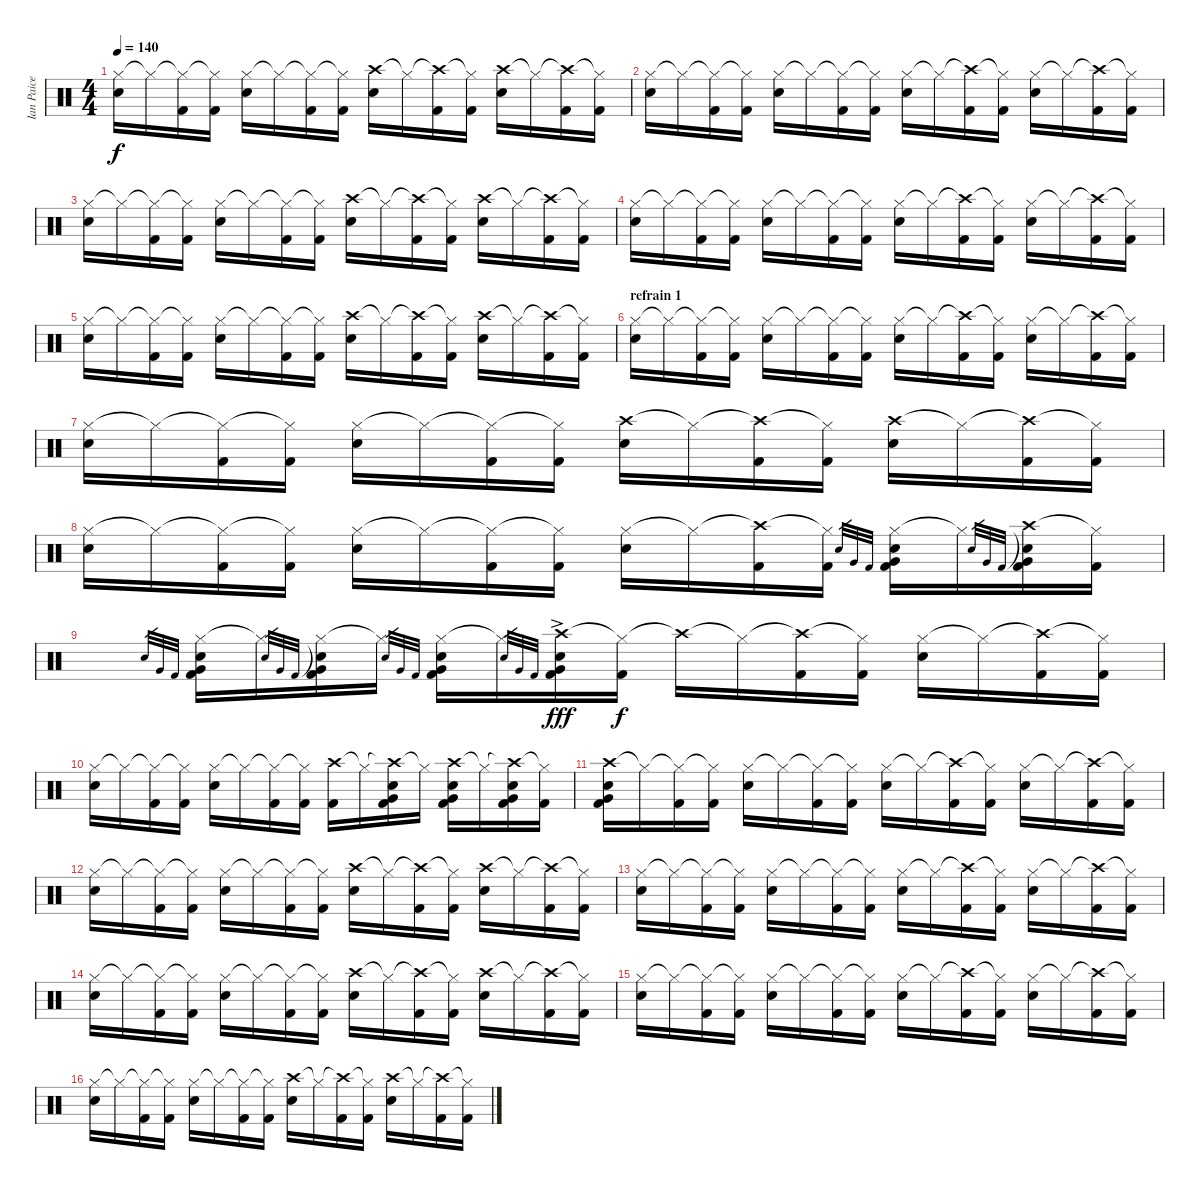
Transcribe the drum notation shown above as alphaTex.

\track ("Ian Paice" "Ian Paice") {instrument percussion}
\staff {score}
\articulation defaults
\ts (4 4)
\tempo 140
\clef neutral
\ks c
("Hi-Hat (closed)" "Snare (hit) 2").16{dy f} "Hi-Hat (closed)"{t}.16 ("Hi-Hat (closed)"{t} "Kick (hit) 2").16 ("Hi-Hat (closed)"{t} "Kick (hit) 2").16 ("Hi-Hat (closed)" "Snare (hit) 2").16 "Hi-Hat (closed)"{t}.16 ("Hi-Hat (closed)"{t} "Kick (hit) 2").16 ("Hi-Hat (closed)"{t} "Kick (hit) 2").16 ("Crash high (hit)" "Snare (hit) 2").16 "Hi-Hat (closed)"{t}.16 ("Crash high (hit)"{t} "Kick (hit) 2").16 ("Hi-Hat (closed)"{t} "Kick (hit) 2").16 ("Crash high (hit)" "Snare (hit) 2").16 "Hi-Hat (closed)"{t}.16 ("Crash high (hit)"{t} "Kick (hit) 2").16 ("Hi-Hat (closed)"{t} "Kick (hit) 2").16 |
("Hi-Hat (closed)" "Snare (hit) 2").16 "Hi-Hat (closed)"{t}.16 ("Hi-Hat (closed)"{t} "Kick (hit) 2").16 ("Hi-Hat (closed)"{t} "Kick (hit) 2").16 ("Hi-Hat (closed)" "Snare (hit) 2").16 "Hi-Hat (closed)"{t}.16 ("Hi-Hat (closed)"{t} "Kick (hit) 2").16 ("Hi-Hat (closed)"{t} "Kick (hit) 2").16 ("Hi-Hat (closed)" "Snare (hit) 2").16 "Hi-Hat (closed)"{t}.16 ("Crash high (hit)"{t} "Kick (hit) 2").16 ("Hi-Hat (closed)"{t} "Kick (hit) 2").16 ("Hi-Hat (closed)" "Snare (hit) 2").16 "Hi-Hat (closed)"{t}.16 ("Crash high (hit)"{t} "Kick (hit) 2").16 ("Hi-Hat (closed)"{t} "Kick (hit) 2").16 |
("Hi-Hat (closed)" "Snare (hit) 2").16 "Hi-Hat (closed)"{t}.16 ("Hi-Hat (closed)"{t} "Kick (hit) 2").16 ("Hi-Hat (closed)"{t} "Kick (hit) 2").16 ("Hi-Hat (closed)" "Snare (hit) 2").16 "Hi-Hat (closed)"{t}.16 ("Hi-Hat (closed)"{t} "Kick (hit) 2").16 ("Hi-Hat (closed)"{t} "Kick (hit) 2").16 ("Crash high (hit)" "Snare (hit) 2").16 "Hi-Hat (closed)"{t}.16 ("Crash high (hit)"{t} "Kick (hit) 2").16 ("Hi-Hat (closed)"{t} "Kick (hit) 2").16 ("Crash high (hit)" "Snare (hit) 2").16 "Hi-Hat (closed)"{t}.16 ("Crash high (hit)"{t} "Kick (hit) 2").16 ("Hi-Hat (closed)"{t} "Kick (hit) 2").16 |
("Hi-Hat (closed)" "Snare (hit) 2").16 "Hi-Hat (closed)"{t}.16 ("Hi-Hat (closed)"{t} "Kick (hit) 2").16 ("Hi-Hat (closed)"{t} "Kick (hit) 2").16 ("Hi-Hat (closed)" "Snare (hit) 2").16 "Hi-Hat (closed)"{t}.16 ("Hi-Hat (closed)"{t} "Kick (hit) 2").16 ("Hi-Hat (closed)"{t} "Kick (hit) 2").16 ("Hi-Hat (closed)" "Snare (hit) 2").16 "Hi-Hat (closed)"{t}.16 ("Crash high (hit)"{t} "Kick (hit) 2").16 ("Hi-Hat (closed)"{t} "Kick (hit) 2").16 ("Hi-Hat (closed)" "Snare (hit) 2").16 "Hi-Hat (closed)"{t}.16 ("Crash high (hit)"{t} "Kick (hit) 2").16 ("Hi-Hat (closed)"{t} "Kick (hit) 2").16 |
("Hi-Hat (closed)" "Snare (hit) 2").16 "Hi-Hat (closed)"{t}.16 ("Hi-Hat (closed)"{t} "Kick (hit) 2").16 ("Hi-Hat (closed)"{t} "Kick (hit) 2").16 ("Hi-Hat (closed)" "Snare (hit) 2").16 "Hi-Hat (closed)"{t}.16 ("Hi-Hat (closed)"{t} "Kick (hit) 2").16 ("Hi-Hat (closed)"{t} "Kick (hit) 2").16 ("Crash high (hit)" "Snare (hit) 2").16 "Hi-Hat (closed)"{t}.16 ("Crash high (hit)"{t} "Kick (hit) 2").16 ("Hi-Hat (closed)"{t} "Kick (hit) 2").16 ("Crash high (hit)" "Snare (hit) 2").16 "Hi-Hat (closed)"{t}.16 ("Crash high (hit)"{t} "Kick (hit) 2").16 ("Hi-Hat (closed)"{t} "Kick (hit) 2").16 |
\section ("" "refrain 1")
("Hi-Hat (closed)" "Snare (hit) 2").16 "Hi-Hat (closed)"{t}.16 ("Hi-Hat (closed)"{t} "Kick (hit) 2").16 ("Hi-Hat (closed)"{t} "Kick (hit) 2").16 ("Hi-Hat (closed)" "Snare (hit) 2").16 "Hi-Hat (closed)"{t}.16 ("Hi-Hat (closed)"{t} "Kick (hit) 2").16 ("Hi-Hat (closed)"{t} "Kick (hit) 2").16 ("Hi-Hat (closed)" "Snare (hit) 2").16 "Hi-Hat (closed)"{t}.16 ("Crash high (hit)"{t} "Kick (hit) 2").16 ("Hi-Hat (closed)"{t} "Kick (hit) 2").16 ("Hi-Hat (closed)" "Snare (hit) 2").16 "Hi-Hat (closed)"{t}.16 ("Crash high (hit)"{t} "Kick (hit) 2").16 ("Hi-Hat (closed)"{t} "Kick (hit) 2").16 |
("Hi-Hat (closed)" "Snare (hit) 2").16 "Hi-Hat (closed)"{t}.16 ("Hi-Hat (closed)"{t} "Kick (hit) 2").16 ("Hi-Hat (closed)"{t} "Kick (hit) 2").16 ("Hi-Hat (closed)" "Snare (hit) 2").16 "Hi-Hat (closed)"{t}.16 ("Hi-Hat (closed)"{t} "Kick (hit) 2").16 ("Hi-Hat (closed)"{t} "Kick (hit) 2").16 ("Crash high (hit)" "Snare (hit) 2").16 "Hi-Hat (closed)"{t}.16 ("Crash high (hit)"{t} "Kick (hit) 2").16 ("Hi-Hat (closed)"{t} "Kick (hit) 2").16 ("Crash high (hit)" "Snare (hit) 2").16 "Hi-Hat (closed)"{t}.16 ("Crash high (hit)"{t} "Kick (hit) 2").16 ("Hi-Hat (closed)"{t} "Kick (hit) 2").16 |
("Hi-Hat (closed)" "Snare (hit) 2").16 "Hi-Hat (closed)"{t}.16 ("Hi-Hat (closed)"{t} "Kick (hit) 2").16 ("Hi-Hat (closed)"{t} "Kick (hit) 2").16 ("Hi-Hat (closed)" "Snare (hit) 2").16 "Hi-Hat (closed)"{t}.16 ("Hi-Hat (closed)"{t} "Kick (hit) 2").16 ("Hi-Hat (closed)"{t} "Kick (hit) 2").16 ("Hi-Hat (closed)" "Snare (hit) 2").16 "Hi-Hat (closed)"{t}.16 ("Crash high (hit)"{t} "Kick (hit) 2").16 ("Hi-Hat (closed)"{t} "Kick (hit) 2").16 "Snare (hit) 2".32{gr} "Very Low Tom (hit)".32{gr} "Kick (hit) 2".32{gr} ("Hi-Hat (closed)" "Snare (hit) 2" "Very Low Tom (hit)" "Kick (hit) 2").16 "Hi-Hat (closed)"{t}.16 "Snare (hit) 2".32{gr} "Very Low Tom (hit)".32{gr} "Kick (hit) 2".32{gr} ("Crash high (hit)"{t} "Snare (hit) 2" "Very Low Tom (hit)" "Kick (hit) 2").16 ("Hi-Hat (closed)"{t} "Kick (hit) 2").16 |
"Snare (hit) 2".32{gr} "Very Low Tom (hit)".32{gr} "Kick (hit) 2".32{gr} ("Hi-Hat (closed)" "Snare (hit) 2" "Very Low Tom (hit)" "Kick (hit) 2").16 "Hi-Hat (closed)"{t}.16 "Snare (hit) 2".32{gr} "Very Low Tom (hit)".32{gr} "Kick (hit) 2".32{gr} ("Hi-Hat (closed)"{t} "Snare (hit) 2" "Very Low Tom (hit)" "Kick (hit) 2").16 "Hi-Hat (closed)"{t}.16 "Snare (hit) 2".32{gr} "Very Low Tom (hit)".32{gr} "Kick (hit) 2".32{gr} ("Hi-Hat (closed)" "Snare (hit) 2" "Very Low Tom (hit)" "Kick (hit) 2").16 "Hi-Hat (closed)"{t}.16 "Snare (hit) 2".32{gr} "Very Low Tom (hit)".32{gr} "Kick (hit) 2".32{gr} ("Crash high (hit)"{ac} "Snare (hit) 2" "Very Low Tom (hit)" "Kick (hit) 2").16{dy fff} ("Hi-Hat (closed)"{t} "Kick (hit) 2").16{dy f} "Crash high (hit)"{t}.16 "Hi-Hat (closed)"{t}.16 ("Crash high (hit)"{t} "Kick (hit) 2").16 ("Hi-Hat (closed)"{t} "Kick (hit) 2").16 ("Hi-Hat (closed)" "Snare (hit) 2").16 "Hi-Hat (closed)"{t}.16 ("Crash high (hit)"{t} "Kick (hit) 2").16 ("Hi-Hat (closed)"{t} "Kick (hit) 2").16 |
("Hi-Hat (closed)" "Snare (hit) 2").16 "Hi-Hat (closed)"{t}.16 ("Hi-Hat (closed)"{t} "Kick (hit) 2").16 ("Hi-Hat (closed)"{t} "Kick (hit) 2").16 ("Hi-Hat (closed)" "Snare (hit) 2").16 "Hi-Hat (closed)"{t}.16 ("Hi-Hat (closed)"{t} "Kick (hit) 2").16 ("Hi-Hat (closed)"{t} "Kick (hit) 2").16 ("Crash high (hit)" "Kick (hit) 2").16 "Hi-Hat (closed)"{t}.16 ("Crash high (hit)"{t} "Snare (hit) 2" "Very Low Tom (hit)" "Kick (hit) 2").16 "Hi-Hat (closed)"{t}.16 ("Crash high (hit)" "Snare (hit) 2" "Very Low Tom (hit)" "Kick (hit) 2").16 "Hi-Hat (closed)"{t}.16 ("Crash high (hit)"{t} "Snare (hit) 2" "Very Low Tom (hit)" "Kick (hit) 2").16 ("Hi-Hat (closed)"{t} "Kick (hit) 2").16 |
("Crash high (hit)" "Snare (hit) 2" "Very Low Tom (hit)" "Kick (hit) 2").16 "Hi-Hat (closed)"{t}.16 ("Hi-Hat (closed)"{t} "Kick (hit) 2").16 ("Hi-Hat (closed)"{t} "Kick (hit) 2").16 ("Hi-Hat (closed)" "Snare (hit) 2").16 "Hi-Hat (closed)"{t}.16 ("Hi-Hat (closed)"{t} "Kick (hit) 2").16 ("Hi-Hat (closed)"{t} "Kick (hit) 2").16 ("Hi-Hat (closed)" "Snare (hit) 2").16 "Hi-Hat (closed)"{t}.16 ("Crash high (hit)"{t} "Kick (hit) 2").16 ("Hi-Hat (closed)"{t} "Kick (hit) 2").16 ("Hi-Hat (closed)" "Snare (hit) 2").16 "Hi-Hat (closed)"{t}.16 ("Crash high (hit)"{t} "Kick (hit) 2").16 ("Hi-Hat (closed)"{t} "Kick (hit) 2").16 |
("Hi-Hat (closed)" "Snare (hit) 2").16 "Hi-Hat (closed)"{t}.16 ("Hi-Hat (closed)"{t} "Kick (hit) 2").16 ("Hi-Hat (closed)"{t} "Kick (hit) 2").16 ("Hi-Hat (closed)" "Snare (hit) 2").16 "Hi-Hat (closed)"{t}.16 ("Hi-Hat (closed)"{t} "Kick (hit) 2").16 ("Hi-Hat (closed)"{t} "Kick (hit) 2").16 ("Crash high (hit)" "Snare (hit) 2").16 "Hi-Hat (closed)"{t}.16 ("Crash high (hit)"{t} "Kick (hit) 2").16 ("Hi-Hat (closed)"{t} "Kick (hit) 2").16 ("Crash high (hit)" "Snare (hit) 2").16 "Hi-Hat (closed)"{t}.16 ("Crash high (hit)"{t} "Kick (hit) 2").16 ("Hi-Hat (closed)"{t} "Kick (hit) 2").16 |
("Hi-Hat (closed)" "Snare (hit) 2").16 "Hi-Hat (closed)"{t}.16 ("Hi-Hat (closed)"{t} "Kick (hit) 2").16 ("Hi-Hat (closed)"{t} "Kick (hit) 2").16 ("Hi-Hat (closed)" "Snare (hit) 2").16 "Hi-Hat (closed)"{t}.16 ("Hi-Hat (closed)"{t} "Kick (hit) 2").16 ("Hi-Hat (closed)"{t} "Kick (hit) 2").16 ("Hi-Hat (closed)" "Snare (hit) 2").16 "Hi-Hat (closed)"{t}.16 ("Crash high (hit)"{t} "Kick (hit) 2").16 ("Hi-Hat (closed)"{t} "Kick (hit) 2").16 ("Hi-Hat (closed)" "Snare (hit) 2").16 "Hi-Hat (closed)"{t}.16 ("Crash high (hit)"{t} "Kick (hit) 2").16 ("Hi-Hat (closed)"{t} "Kick (hit) 2").16 |
("Hi-Hat (closed)" "Snare (hit) 2").16 "Hi-Hat (closed)"{t}.16 ("Hi-Hat (closed)"{t} "Kick (hit) 2").16 ("Hi-Hat (closed)"{t} "Kick (hit) 2").16 ("Hi-Hat (closed)" "Snare (hit) 2").16 "Hi-Hat (closed)"{t}.16 ("Hi-Hat (closed)"{t} "Kick (hit) 2").16 ("Hi-Hat (closed)"{t} "Kick (hit) 2").16 ("Crash high (hit)" "Snare (hit) 2").16 "Hi-Hat (closed)"{t}.16 ("Crash high (hit)"{t} "Kick (hit) 2").16 ("Hi-Hat (closed)"{t} "Kick (hit) 2").16 ("Crash high (hit)" "Snare (hit) 2").16 "Hi-Hat (closed)"{t}.16 ("Crash high (hit)"{t} "Kick (hit) 2").16 ("Hi-Hat (closed)"{t} "Kick (hit) 2").16 |
("Hi-Hat (closed)" "Snare (hit) 2").16 "Hi-Hat (closed)"{t}.16 ("Hi-Hat (closed)"{t} "Kick (hit) 2").16 ("Hi-Hat (closed)"{t} "Kick (hit) 2").16 ("Hi-Hat (closed)" "Snare (hit) 2").16 "Hi-Hat (closed)"{t}.16 ("Hi-Hat (closed)"{t} "Kick (hit) 2").16 ("Hi-Hat (closed)"{t} "Kick (hit) 2").16 ("Hi-Hat (closed)" "Snare (hit) 2").16 "Hi-Hat (closed)"{t}.16 ("Crash high (hit)"{t} "Kick (hit) 2").16 ("Hi-Hat (closed)"{t} "Kick (hit) 2").16 ("Hi-Hat (closed)" "Snare (hit) 2").16 "Hi-Hat (closed)"{t}.16 ("Crash high (hit)"{t} "Kick (hit) 2").16 ("Hi-Hat (closed)"{t} "Kick (hit) 2").16 |
("Hi-Hat (closed)" "Snare (hit) 2").16 "Hi-Hat (closed)"{t}.16 ("Hi-Hat (closed)"{t} "Kick (hit) 2").16 ("Hi-Hat (closed)"{t} "Kick (hit) 2").16 ("Hi-Hat (closed)" "Snare (hit) 2").16 "Hi-Hat (closed)"{t}.16 ("Hi-Hat (closed)"{t} "Kick (hit) 2").16 ("Hi-Hat (closed)"{t} "Kick (hit) 2").16 ("Crash high (hit)" "Snare (hit) 2").16 "Hi-Hat (closed)"{t}.16 ("Crash high (hit)"{t} "Kick (hit) 2").16 ("Hi-Hat (closed)"{t} "Kick (hit) 2").16 ("Crash high (hit)" "Snare (hit) 2").16 "Hi-Hat (closed)"{t}.16 ("Crash high (hit)"{t} "Kick (hit) 2").16 ("Hi-Hat (closed)"{t} "Kick (hit) 2").16
